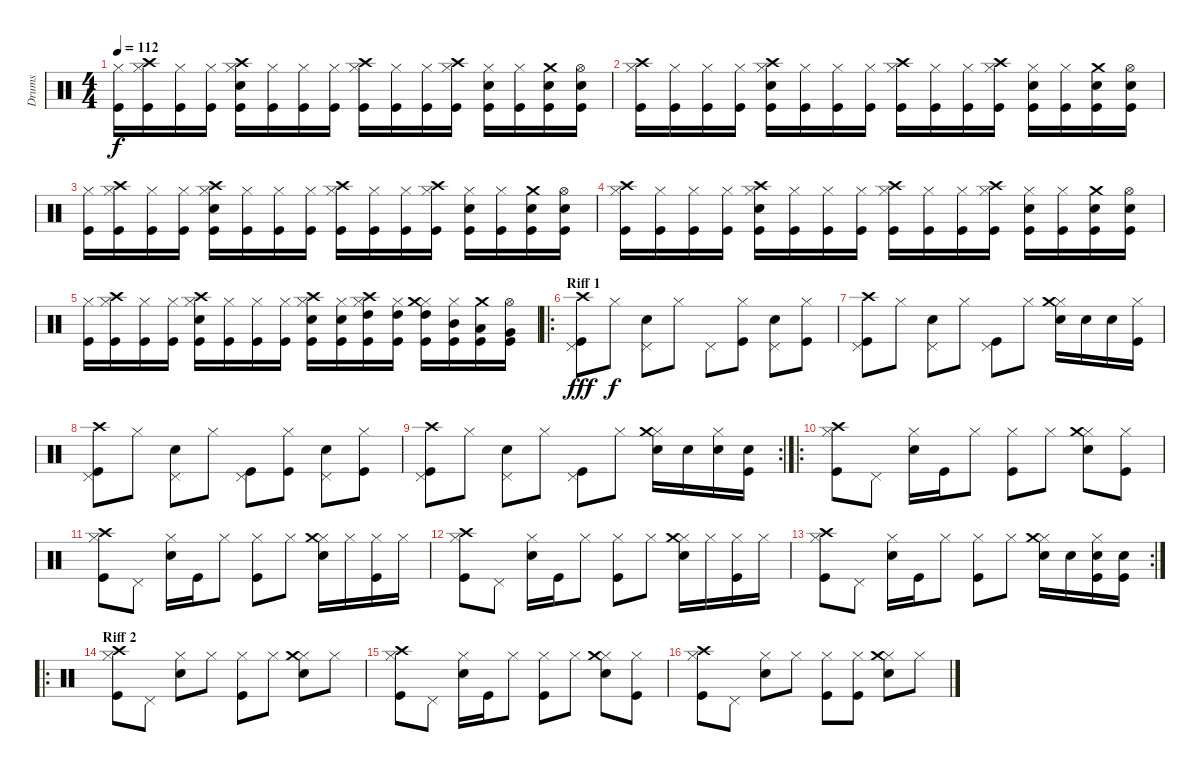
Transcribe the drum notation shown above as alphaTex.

\track ("Drums" "Drums") {instrument percussion}
\staff {score}
\articulation defaults
\ts (4 4)
\tempo 112
\clef neutral
\ks c
("Hi-Hat (closed)" "Kick (hit)").16{dy f} ("Hi-Hat (closed)" "Crash high (hit)" "Kick (hit)").16 ("Hi-Hat (closed)" "Kick (hit)").16 ("Hi-Hat (closed)" "Kick (hit)").16 ("Hi-Hat (closed)" "Crash high (hit)" "Electric Snare (hit)" "Kick (hit)").16 ("Hi-Hat (closed)" "Kick (hit)").16 ("Hi-Hat (closed)" "Kick (hit)").16 ("Hi-Hat (closed)" "Kick (hit)").16 ("Hi-Hat (closed)" "Crash high (hit)" "Kick (hit)").16 ("Hi-Hat (closed)" "Kick (hit)").16 ("Hi-Hat (closed)" "Kick (hit)").16 ("Hi-Hat (closed)" "Crash high (hit)" "Kick (hit)").16 ("Hi-Hat (closed)" "Electric Snare (hit)" "Kick (hit)").16 ("Hi-Hat (closed)" "Kick (hit)").16 ("Crash medium (hit)" "Electric Snare (hit)" "Kick (hit)").16 ("Hi-Hat (open)" "Electric Snare (hit)" "Kick (hit)").16 |
("Hi-Hat (closed)" "Crash high (hit)" "Kick (hit)").16 ("Hi-Hat (closed)" "Kick (hit)").16 ("Hi-Hat (closed)" "Kick (hit)").16 ("Hi-Hat (closed)" "Kick (hit)").16 ("Hi-Hat (closed)" "Crash high (hit)" "Electric Snare (hit)" "Kick (hit)").16 ("Hi-Hat (closed)" "Kick (hit)").16 ("Hi-Hat (closed)" "Kick (hit)").16 ("Hi-Hat (closed)" "Kick (hit)").16 ("Hi-Hat (closed)" "Crash high (hit)" "Kick (hit)").16 ("Hi-Hat (closed)" "Kick (hit)").16 ("Hi-Hat (closed)" "Kick (hit)").16 ("Hi-Hat (closed)" "Crash high (hit)" "Kick (hit)").16 ("Hi-Hat (closed)" "Electric Snare (hit)" "Kick (hit)").16 ("Hi-Hat (closed)" "Kick (hit)").16 ("Crash medium (hit)" "Electric Snare (hit)" "Kick (hit)").16 ("Hi-Hat (open)" "Electric Snare (hit)" "Kick (hit)").16 |
("Hi-Hat (closed)" "Kick (hit)").16 ("Hi-Hat (closed)" "Crash high (hit)" "Kick (hit)").16 ("Hi-Hat (closed)" "Kick (hit)").16 ("Hi-Hat (closed)" "Kick (hit)").16 ("Hi-Hat (closed)" "Crash high (hit)" "Electric Snare (hit)" "Kick (hit)").16 ("Hi-Hat (closed)" "Kick (hit)").16 ("Hi-Hat (closed)" "Kick (hit)").16 ("Hi-Hat (closed)" "Kick (hit)").16 ("Hi-Hat (closed)" "Crash high (hit)" "Kick (hit)").16 ("Hi-Hat (closed)" "Kick (hit)").16 ("Hi-Hat (closed)" "Kick (hit)").16 ("Hi-Hat (closed)" "Crash high (hit)" "Kick (hit)").16 ("Hi-Hat (closed)" "Electric Snare (hit)" "Kick (hit)").16 ("Hi-Hat (closed)" "Kick (hit)").16 ("Crash medium (hit)" "Electric Snare (hit)" "Kick (hit)").16 ("Hi-Hat (open)" "Electric Snare (hit)" "Kick (hit)").16 |
("Hi-Hat (closed)" "Crash high (hit)" "Kick (hit)").16 ("Hi-Hat (closed)" "Kick (hit)").16 ("Hi-Hat (closed)" "Kick (hit)").16 ("Hi-Hat (closed)" "Kick (hit)").16 ("Hi-Hat (closed)" "Crash high (hit)" "Electric Snare (hit)" "Kick (hit)").16 ("Hi-Hat (closed)" "Kick (hit)").16 ("Hi-Hat (closed)" "Kick (hit)").16 ("Hi-Hat (closed)" "Kick (hit)").16 ("Hi-Hat (closed)" "Crash high (hit)" "Kick (hit)").16 ("Hi-Hat (closed)" "Kick (hit)").16 ("Hi-Hat (closed)" "Kick (hit)").16 ("Hi-Hat (closed)" "Crash high (hit)" "Kick (hit)").16 ("Hi-Hat (closed)" "Electric Snare (hit)" "Kick (hit)").16 ("Hi-Hat (closed)" "Kick (hit)").16 ("Crash medium (hit)" "Electric Snare (hit)" "Kick (hit)").16 ("Hi-Hat (open)" "Electric Snare (hit)" "Kick (hit)").16 |
("Hi-Hat (closed)" "Kick (hit)").16 ("Hi-Hat (closed)" "Crash high (hit)" "Kick (hit)").16 ("Hi-Hat (closed)" "Kick (hit)").16 ("Hi-Hat (closed)" "Kick (hit)").16 ("Hi-Hat (closed)" "Crash high (hit)" "Electric Snare (hit)" "Kick (hit)").16 ("Hi-Hat (closed)" "Kick (hit)").16 ("Hi-Hat (closed)" "Kick (hit)").16 ("Hi-Hat (closed)" "Kick (hit)").16 ("Hi-Hat (closed)" "Crash high (hit)" "Electric Snare (hit)" "Kick (hit)").16 ("Hi-Hat (closed)" "Electric Snare (hit)" "Kick (hit)").16 ("Hi-Hat (closed)" "Crash high (hit)" "High Tom (hit)" "Kick (hit)").16 ("Hi-Hat (closed)" "High Tom (hit)" "Kick (hit)").16 ("Hi-Hat (closed)" "Crash medium (hit)" "High Tom (hit)" "Kick (hit)").16 ("Hi-Hat (closed)" "Mid Tom (hit)" "Kick (hit)").16 ("Crash medium (hit)" "Low Tom (hit)" "Kick (hit)").16 ("Hi-Hat (open)" "Very Low Tom (hit)" "Kick (hit)").16 |
\ro
\section ("" "Riff 1")
("Pedal Hi-Hat (hit)" "Crash high (hit)" "Kick (hit)").8{dy fff} "Hi-Hat (closed)".8{dy f} ("Pedal Hi-Hat (hit)" "Electric Snare (hit)").8 "Hi-Hat (closed)".8 "Pedal Hi-Hat (hit)".8 ("Hi-Hat (closed)" "Kick (hit)").8 ("Pedal Hi-Hat (hit)" "Electric Snare (hit)").8 ("Hi-Hat (closed)" "Kick (hit)").8 |
("Pedal Hi-Hat (hit)" "Crash high (hit)" "Kick (hit)").8 "Hi-Hat (closed)".8 ("Pedal Hi-Hat (hit)" "Electric Snare (hit)").8 "Hi-Hat (closed)".8 ("Pedal Hi-Hat (hit)" "Kick (hit)").8 "Hi-Hat (closed)".8 ("Hi-Hat (closed)" "Electric Snare (hit)" "Crash medium (hit)").16 "Electric Snare (hit)".16 "Electric Snare (hit)".16 ("Hi-Hat (closed)" "Kick (hit)").16 |
("Pedal Hi-Hat (hit)" "Crash high (hit)" "Kick (hit)").8 "Hi-Hat (closed)".8 ("Pedal Hi-Hat (hit)" "Electric Snare (hit)").8 "Hi-Hat (closed)".8 ("Pedal Hi-Hat (hit)" "Kick (hit)").8 ("Hi-Hat (closed)" "Kick (hit)").8 ("Pedal Hi-Hat (hit)" "Electric Snare (hit)").8 ("Hi-Hat (closed)" "Kick (hit)").8 |
\rc 2
("Pedal Hi-Hat (hit)" "Crash high (hit)" "Kick (hit)").8 "Hi-Hat (closed)".8 ("Pedal Hi-Hat (hit)" "Electric Snare (hit)").8 "Hi-Hat (closed)".8 ("Pedal Hi-Hat (hit)" "Kick (hit)").8 "Hi-Hat (closed)".8 ("Hi-Hat (closed)" "Electric Snare (hit)" "Crash medium (hit)").16 "Electric Snare (hit)".16 ("Hi-Hat (closed)" "Electric Snare (hit)").16 ("Electric Snare (hit)" "Kick (hit)").16 |
\ro
("Hi-Hat (closed)" "Crash high (hit)" "Kick (hit)").8 "Pedal Hi-Hat (hit)".8 ("Hi-Hat (closed)" "Electric Snare (hit)").16 "Kick (hit)".16 "Hi-Hat (closed)".8 ("Hi-Hat (closed)" "Kick (hit)").8 "Hi-Hat (closed)".8 ("Hi-Hat (closed)" "Crash medium (hit)" "Electric Snare (hit)").8 ("Hi-Hat (closed)" "Kick (hit)").8 |
("Hi-Hat (closed)" "Crash high (hit)" "Kick (hit)").8 "Pedal Hi-Hat (hit)".8 ("Hi-Hat (closed)" "Electric Snare (hit)").16 "Kick (hit)".16 "Hi-Hat (closed)".8 ("Hi-Hat (closed)" "Kick (hit)").8 "Hi-Hat (closed)".8 ("Hi-Hat (closed)" "Electric Snare (hit)" "Crash medium (hit)").16 "Hi-Hat (closed)".16 ("Hi-Hat (closed)" "Kick (hit)").16 "Hi-Hat (closed)".16 |
("Hi-Hat (closed)" "Crash high (hit)" "Kick (hit)").8 "Pedal Hi-Hat (hit)".8 ("Hi-Hat (closed)" "Electric Snare (hit)").16 "Kick (hit)".16 "Hi-Hat (closed)".8 ("Hi-Hat (closed)" "Kick (hit)").8 "Hi-Hat (closed)".8 ("Hi-Hat (closed)" "Electric Snare (hit)" "Crash medium (hit)").16 "Hi-Hat (closed)".16 ("Hi-Hat (closed)" "Kick (hit)").16 "Hi-Hat (closed)".16 |
\rc 2
("Hi-Hat (closed)" "Crash high (hit)" "Kick (hit)").8 "Pedal Hi-Hat (hit)".8 ("Hi-Hat (closed)" "Electric Snare (hit)").16 "Kick (hit)".16 "Hi-Hat (closed)".8 ("Hi-Hat (closed)" "Kick (hit)").8 "Hi-Hat (closed)".8 ("Hi-Hat (closed)" "Electric Snare (hit)" "Crash medium (hit)").16 "Electric Snare (hit)".16 ("Hi-Hat (closed)" "Electric Snare (hit)" "Kick (hit)").16 ("Electric Snare (hit)" "Kick (hit)").16 |
\ro
\section ("" "Riff 2")
("Hi-Hat (closed)" "Crash high (hit)" "Kick (hit)").8 "Pedal Hi-Hat (hit)".8 ("Hi-Hat (closed)" "Electric Snare (hit)").8 "Hi-Hat (closed)".8 ("Hi-Hat (closed)" "Kick (hit)").8 "Hi-Hat (closed)".8 ("Hi-Hat (closed)" "Electric Snare (hit)" "Crash medium (hit)").8 "Hi-Hat (closed)".8 |
("Hi-Hat (closed)" "Crash high (hit)" "Kick (hit)").8 "Pedal Hi-Hat (hit)".8 ("Hi-Hat (closed)" "Electric Snare (hit)").16 "Kick (hit)".16 "Hi-Hat (closed)".8 ("Hi-Hat (closed)" "Kick (hit)").8 "Hi-Hat (closed)".8 ("Hi-Hat (closed)" "Electric Snare (hit)" "Crash medium (hit)").8 ("Hi-Hat (closed)" "Kick (hit)").8 |
("Hi-Hat (closed)" "Crash high (hit)" "Kick (hit)").8 "Pedal Hi-Hat (hit)".8 ("Hi-Hat (closed)" "Electric Snare (hit)").8 "Hi-Hat (closed)".8 ("Hi-Hat (closed)" "Kick (hit)").8 ("Hi-Hat (closed)" "Kick (hit)").8 ("Hi-Hat (closed)" "Electric Snare (hit)" "Crash medium (hit)").8 "Hi-Hat (closed)".8
